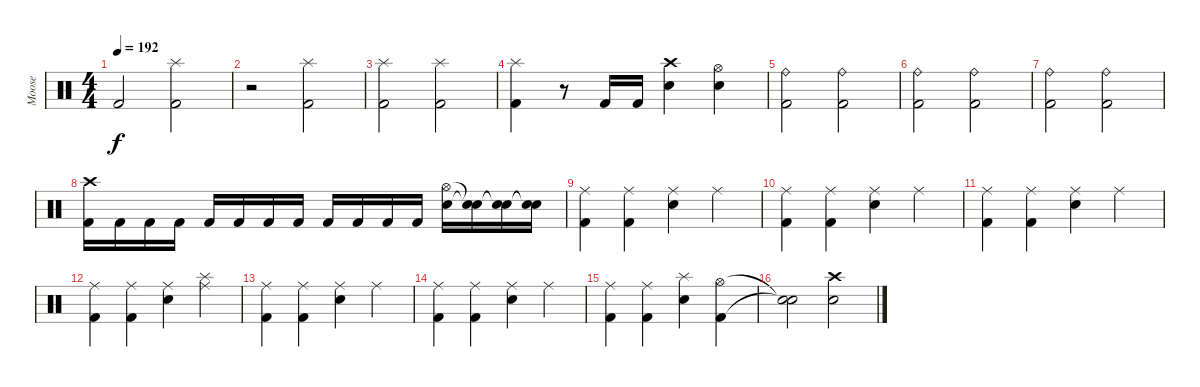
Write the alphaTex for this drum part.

\track ("Moose" "Moose") {instrument percussion}
\staff {score}
\articulation defaults
\ts (4 4)
\tempo 192
\clef neutral
\ks c "Kick (hit) 2".2{dy f}
("Kick (hit) 2" "Splash (hit)").2 |
r.2 ("Kick (hit) 2" "Splash (hit)").2 |
("Kick (hit) 2" "Splash (hit)").2 ("Kick (hit) 2" "Splash (hit)").2 |
("Kick (hit) 2" "Splash (hit)").4 r.8 "Kick (hit) 2".16 "Kick (hit) 2".16 ("Electric Snare (hit)" "Crash high (hit)").4 ("Snare (hit) 2" "Hi-Hat (open)").4 |
("Kick (hit) 2" "Ride (bell)").2 ("Kick (hit) 2" "Ride (bell)").2 |
("Kick (hit) 2" "Ride (bell)").2 ("Kick (hit) 2" "Ride (bell)").2 |
("Kick (hit) 2" "Ride (bell)").2 ("Kick (hit) 2" "Ride (bell)").2 |
("Kick (hit) 2" "Crash high (hit)").16 "Kick (hit) 2".16 "Kick (hit) 2".16 "Kick (hit) 2".16 "Kick (hit) 2".16 "Kick (hit) 2".16 "Kick (hit) 2".16 "Kick (hit) 2".16 "Kick (hit) 2".16 "Kick (hit) 2".16 "Kick (hit) 2".16 "Kick (hit) 2".16 ("Electric Snare (hit)" "Hi-Hat (open)").16 ("Snare (hit)"{t} "Snare (hit)"{t}).16 ("Snare (hit)"{t} "Snare (hit)"{t}).16 ("Snare (hit)"{t} "Snare (hit)"{t}).16 |
("Kick (hit) 2" "Ride (middle)").4 ("Kick (hit) 2" "Ride (middle)").4 ("Electric Snare (hit)" "Ride (middle)").4 "Ride (middle)".4 |
("Kick (hit) 2" "Ride (middle)").4 ("Kick (hit) 2" "Ride (middle)").4 ("Electric Snare (hit)" "Ride (middle)").4 "Ride (middle)".4 |
("Kick (hit) 2" "Ride (middle)").4 ("Kick (hit) 2" "Ride (middle)").4 ("Electric Snare (hit)" "Ride (middle)").4 "Ride (middle)".4 |
("Kick (hit) 2" "Ride (middle)").4 ("Kick (hit) 2" "Ride (middle)").4 ("Electric Snare (hit)" "Ride (middle)").4 ("Ride (middle)" "Splash (hit)").4 |
("Kick (hit) 2" "Ride (middle)").4 ("Kick (hit) 2" "Ride (middle)").4 ("Electric Snare (hit)" "Ride (middle)").4 "Ride (middle)".4 |
("Kick (hit) 2" "Ride (middle)").4 ("Kick (hit) 2" "Ride (middle)").4 ("Electric Snare (hit)" "Ride (middle)").4 "Ride (middle)".4 |
("Kick (hit) 2" "Ride (middle)").4 ("Kick (hit) 2" "Ride (middle)").4 ("Electric Snare (hit)" "Splash (hit)").4 ("Kick (hit) 2" "Hi-Hat (open)").4 |
("Snare (hit)"{t} "Snare (hit)"{t}).2 ("Snare (hit) 2" "Crash high (hit)").2
